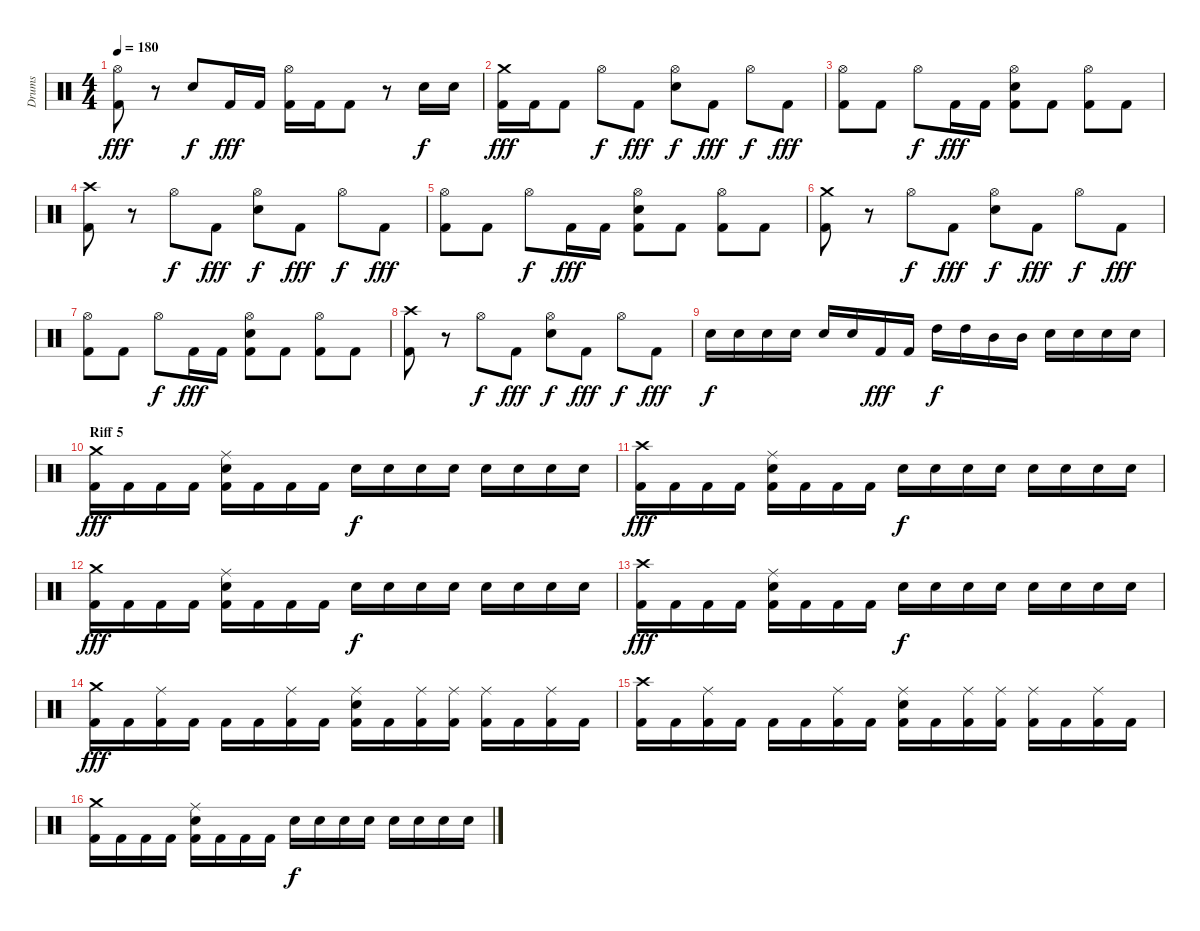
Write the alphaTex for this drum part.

\track ("Drums" "Drums") {instrument percussion}
\staff {score}
\articulation defaults
\ts (4 4)
\tempo 180
\clef neutral
\ks c
("Hi-Hat (open)" "Kick (hit) 2").8{dy fff} r.8 "Electric Snare (hit)".8{dy f} "Kick (hit) 2".16{dy fff} "Kick (hit) 2".16 ("Hi-Hat (open)" "Kick (hit) 2").16 "Kick (hit) 2".16 "Kick (hit) 2".8 r.8 "Electric Snare (hit)".16{dy f} "Electric Snare (hit)".16 |
("Crash medium (hit)" "Kick (hit) 2").16{dy fff} "Kick (hit) 2".16 "Kick (hit) 2".8 "Hi-Hat (open)".8{dy f} "Kick (hit) 2".8{dy fff} ("Hi-Hat (open)" "Electric Snare (hit)").8{dy f} "Kick (hit) 2".8{dy fff} "Hi-Hat (open)".8{dy f} "Kick (hit) 2".8{dy fff} |
("Hi-Hat (open)" "Kick (hit) 2").8 "Kick (hit) 2".8 "Hi-Hat (open)".8{dy f} "Kick (hit) 2".16{dy fff} "Kick (hit) 2".16 ("Hi-Hat (open)" "Electric Snare (hit)" "Kick (hit) 2").8 "Kick (hit) 2".8 ("Hi-Hat (open)" "Kick (hit) 2").8 "Kick (hit) 2".8 |
("Crash high (hit)" "Kick (hit) 2").8 r.8 "Hi-Hat (open)".8{dy f} "Kick (hit) 2".8{dy fff} ("Hi-Hat (open)" "Electric Snare (hit)").8{dy f} "Kick (hit) 2".8{dy fff} "Hi-Hat (open)".8{dy f} "Kick (hit) 2".8{dy fff} |
("Hi-Hat (open)" "Kick (hit) 2").8 "Kick (hit) 2".8 "Hi-Hat (open)".8{dy f} "Kick (hit) 2".16{dy fff} "Kick (hit) 2".16 ("Hi-Hat (open)" "Electric Snare (hit)" "Kick (hit) 2").8 "Kick (hit) 2".8 ("Hi-Hat (open)" "Kick (hit) 2").8 "Kick (hit) 2".8 |
("Crash medium (hit)" "Kick (hit) 2").8 r.8 "Hi-Hat (open)".8{dy f} "Kick (hit) 2".8{dy fff} ("Hi-Hat (open)" "Electric Snare (hit)").8{dy f} "Kick (hit) 2".8{dy fff} "Hi-Hat (open)".8{dy f} "Kick (hit) 2".8{dy fff} |
("Hi-Hat (open)" "Kick (hit) 2").8 "Kick (hit) 2".8 "Hi-Hat (open)".8{dy f} "Kick (hit) 2".16{dy fff} "Kick (hit) 2".16 ("Hi-Hat (open)" "Electric Snare (hit)" "Kick (hit) 2").8 "Kick (hit) 2".8 ("Hi-Hat (open)" "Kick (hit) 2").8 "Kick (hit) 2".8 |
("Crash high (hit)" "Kick (hit) 2").8 r.8 "Hi-Hat (open)".8{dy f} "Kick (hit) 2".8{dy fff} ("Hi-Hat (open)" "Electric Snare (hit)").8{dy f} "Kick (hit) 2".8{dy fff} "Hi-Hat (open)".8{dy f} "Kick (hit) 2".8{dy fff} |
"Electric Snare (hit)".16{dy f} "Electric Snare (hit)".16 "Electric Snare (hit)".16 "Electric Snare (hit)".16 "Electric Snare (hit)".16 "Electric Snare (hit)".16 "Kick (hit) 2".16{dy fff} "Kick (hit) 2".16 "High Tom (hit)".16{dy f} "High Tom (hit)".16 "Mid Tom (hit)".16 "Mid Tom (hit)".16 "Electric Snare (hit)".16 "Electric Snare (hit)".16 "Electric Snare (hit)".16 "Electric Snare (hit)".16 |
\section ("" "Riff 5")
("Crash medium (hit)" "Kick (hit) 2").16{dy fff} "Kick (hit) 2".16 "Kick (hit) 2".16 "Kick (hit) 2".16 ("Ride (middle)" "Electric Snare (hit)" "Kick (hit) 2").16 "Kick (hit) 2".16 "Kick (hit) 2".16 "Kick (hit) 2".16 "Electric Snare (hit)".16{dy f} "Electric Snare (hit)".16 "Electric Snare (hit)".16 "Electric Snare (hit)".16 "Electric Snare (hit)".16 "Electric Snare (hit)".16 "Electric Snare (hit)".16 "Electric Snare (hit)".16 |
("Crash high (hit)" "Kick (hit) 2").16{dy fff} "Kick (hit) 2".16 "Kick (hit) 2".16 "Kick (hit) 2".16 ("Ride (middle)" "Electric Snare (hit)" "Kick (hit) 2").16 "Kick (hit) 2".16 "Kick (hit) 2".16 "Kick (hit) 2".16 "Electric Snare (hit)".16{dy f} "Electric Snare (hit)".16 "Electric Snare (hit)".16 "Electric Snare (hit)".16 "Electric Snare (hit)".16 "Electric Snare (hit)".16 "Electric Snare (hit)".16 "Electric Snare (hit)".16 |
("Crash medium (hit)" "Kick (hit) 2").16{dy fff} "Kick (hit) 2".16 "Kick (hit) 2".16 "Kick (hit) 2".16 ("Ride (middle)" "Electric Snare (hit)" "Kick (hit) 2").16 "Kick (hit) 2".16 "Kick (hit) 2".16 "Kick (hit) 2".16 "Electric Snare (hit)".16{dy f} "Electric Snare (hit)".16 "Electric Snare (hit)".16 "Electric Snare (hit)".16 "Electric Snare (hit)".16 "Electric Snare (hit)".16 "Electric Snare (hit)".16 "Electric Snare (hit)".16 |
("Crash high (hit)" "Kick (hit) 2").16{dy fff} "Kick (hit) 2".16 "Kick (hit) 2".16 "Kick (hit) 2".16 ("Ride (middle)" "Electric Snare (hit)" "Kick (hit) 2").16 "Kick (hit) 2".16 "Kick (hit) 2".16 "Kick (hit) 2".16 "Electric Snare (hit)".16{dy f} "Electric Snare (hit)".16 "Electric Snare (hit)".16 "Electric Snare (hit)".16 "Electric Snare (hit)".16 "Electric Snare (hit)".16 "Electric Snare (hit)".16 "Electric Snare (hit)".16 |
("Crash medium (hit)" "Kick (hit) 2").16{dy fff} "Kick (hit) 2".16 ("Ride (middle)" "Kick (hit) 2").16 "Kick (hit) 2".16 "Kick (hit) 2".16 "Kick (hit) 2".16 ("Ride (middle)" "Kick (hit) 2").16 "Kick (hit) 2".16 ("Ride (middle)" "Electric Snare (hit)" "Kick (hit) 2").16 "Kick (hit) 2".16 ("Ride (middle)" "Kick (hit) 2").16 ("Ride (middle)" "Kick (hit) 2").16 ("Ride (middle)" "Kick (hit) 2").16 "Kick (hit) 2".16 ("Ride (middle)" "Kick (hit) 2").16 "Kick (hit) 2".16 |
("Crash high (hit)" "Kick (hit) 2").16 "Kick (hit) 2".16 ("Ride (middle)" "Kick (hit) 2").16 "Kick (hit) 2".16 "Kick (hit) 2".16 "Kick (hit) 2".16 ("Ride (middle)" "Kick (hit) 2").16 "Kick (hit) 2".16 ("Ride (middle)" "Electric Snare (hit)" "Kick (hit) 2").16 "Kick (hit) 2".16 ("Ride (middle)" "Kick (hit) 2").16 ("Ride (middle)" "Kick (hit) 2").16 ("Ride (middle)" "Kick (hit) 2").16 "Kick (hit) 2".16 ("Ride (middle)" "Kick (hit) 2").16 "Kick (hit) 2".16 |
("Crash medium (hit)" "Kick (hit) 2").16 "Kick (hit) 2".16 "Kick (hit) 2".16 "Kick (hit) 2".16 ("Ride (middle)" "Electric Snare (hit)" "Kick (hit) 2").16 "Kick (hit) 2".16 "Kick (hit) 2".16 "Kick (hit) 2".16 "Electric Snare (hit)".16{dy f} "Electric Snare (hit)".16 "Electric Snare (hit)".16 "Electric Snare (hit)".16 "Electric Snare (hit)".16 "Electric Snare (hit)".16 "Electric Snare (hit)".16 "Electric Snare (hit)".16
